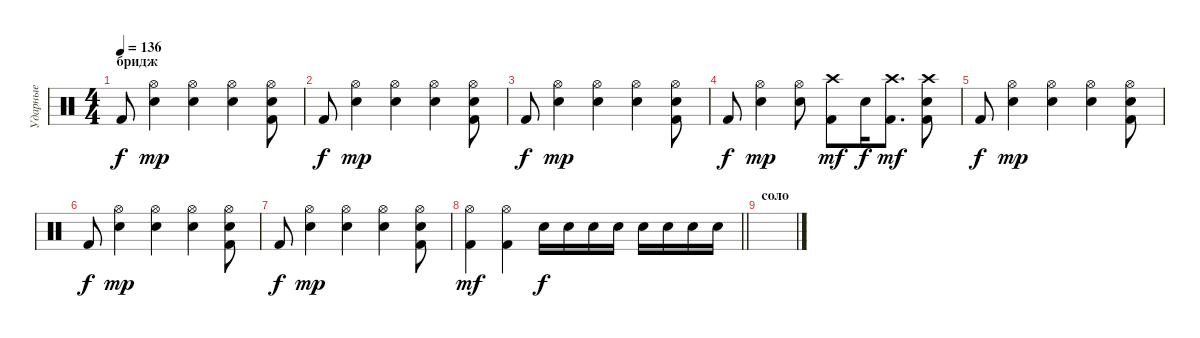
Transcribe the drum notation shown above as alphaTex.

\track ("Ударные" "Ударные") {instrument percussion}
\staff {score}
\articulation defaults
\ts (4 4)
\section ("" "бридж")
\tempo 136
\clef neutral
\ks c "Kick (hit) 2".8{dy f}
("Electric Snare (hit)" "Hi-Hat (open)").4{dy mp} ("Electric Snare (hit)" "Hi-Hat (open)").4 ("Electric Snare (hit)" "Hi-Hat (open)").4 ("Kick (hit) 2" "Electric Snare (hit)" "Hi-Hat (open)").8 |
"Kick (hit) 2".8{dy f} ("Electric Snare (hit)" "Hi-Hat (open)").4{dy mp} ("Electric Snare (hit)" "Hi-Hat (open)").4 ("Electric Snare (hit)" "Hi-Hat (open)").4 ("Kick (hit) 2" "Electric Snare (hit)" "Hi-Hat (open)").8 |
"Kick (hit) 2".8{dy f} ("Electric Snare (hit)" "Hi-Hat (open)").4{dy mp} ("Electric Snare (hit)" "Hi-Hat (open)").4 ("Electric Snare (hit)" "Hi-Hat (open)").4 ("Kick (hit) 2" "Electric Snare (hit)" "Hi-Hat (open)").8 |
"Kick (hit) 2".8{dy f} ("Electric Snare (hit)" "Hi-Hat (open)").4{dy mp} ("Electric Snare (hit)" "Hi-Hat (open)").8 ("Kick (hit) 2" "Crash high (hit)").8{dy mf} "Electric Snare (hit)".16{dy f} ("Kick (hit) 2" "Crash high (hit)").8{d dy mf} ("Kick (hit) 2" "Electric Snare (hit)" "Crash high (hit)").8 |
"Kick (hit) 2".8{dy f} ("Electric Snare (hit)" "Hi-Hat (open)").4{dy mp} ("Electric Snare (hit)" "Hi-Hat (open)").4 ("Electric Snare (hit)" "Hi-Hat (open)").4 ("Kick (hit) 2" "Electric Snare (hit)" "Hi-Hat (open)").8 |
"Kick (hit) 2".8{dy f} ("Electric Snare (hit)" "Hi-Hat (open)").4{dy mp} ("Electric Snare (hit)" "Hi-Hat (open)").4 ("Electric Snare (hit)" "Hi-Hat (open)").4 ("Kick (hit) 2" "Electric Snare (hit)" "Hi-Hat (open)").8 |
"Kick (hit) 2".8{dy f} ("Electric Snare (hit)" "Hi-Hat (open)").4{dy mp} ("Electric Snare (hit)" "Hi-Hat (open)").4 ("Electric Snare (hit)" "Hi-Hat (open)").4 ("Kick (hit) 2" "Electric Snare (hit)" "Hi-Hat (open)").8 |
\barLineRight lightlight
("Kick (hit) 2" "Hi-Hat (open)").4{dy mf} ("Kick (hit) 2" "Hi-Hat (open)").4 "Electric Snare (hit)".16{dy f} "Electric Snare (hit)".16 "Electric Snare (hit)".16 "Electric Snare (hit)".16 "Electric Snare (hit)".16 "Electric Snare (hit)".16 "Electric Snare (hit)".16 "Electric Snare (hit)".16 |
\section ("" "соло")
